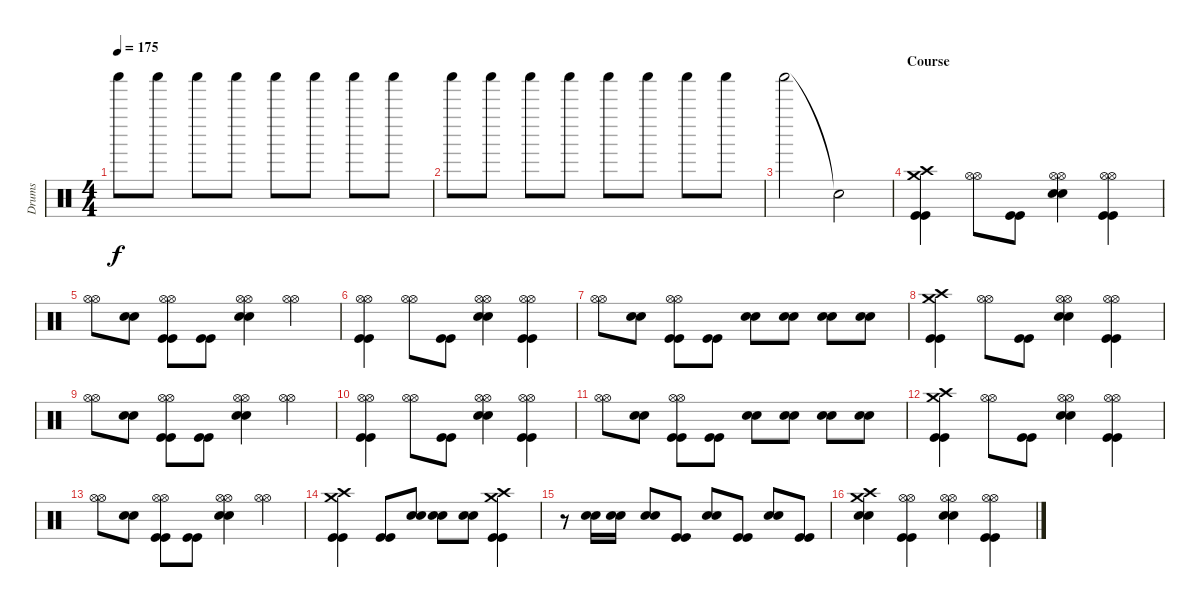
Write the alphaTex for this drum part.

\track ("Drums" "Drums") {instrument percussion}
\staff {score}
\articulation defaults
\ts (4 4)
\tempo 175
\clef neutral
\ks c "Shaker (hit)".8{dy f} "Shaker (hit)".8 "Shaker (hit)".8 "Shaker (hit)".8 "Shaker (hit)".8 "Shaker (hit)".8 "Shaker (hit)".8 "Shaker (hit)".8
|
"Shaker (hit)".8 "Shaker (hit)".8 "Shaker (hit)".8 "Shaker (hit)".8 "Shaker (hit)".8 "Shaker (hit)".8 "Shaker (hit)".8 "Shaker (hit)".8 |
"Shaker (hit)".2 "Snare (hit)"{t}.2 |
\section ("" "Course")
("Crash high (hit)" "Crash medium (hit)" "Kick (hit)" "Kick (hit)").4 ("Hi-Hat (open)" "Hi-Hat (open)").8 ("Kick (hit)" "Kick (hit)").8 ("Hi-Hat (open)" "Hi-Hat (open)" "Electric Snare (hit)" "Electric Snare (hit)").4 ("Hi-Hat (open)" "Hi-Hat (open)" "Kick (hit)" "Kick (hit)").4 |
("Hi-Hat (open)" "Hi-Hat (open)").8 ("Electric Snare (hit)" "Electric Snare (hit)").8 ("Hi-Hat (open)" "Hi-Hat (open)" "Kick (hit)" "Kick (hit)").8 ("Kick (hit)" "Kick (hit)").8 ("Hi-Hat (open)" "Hi-Hat (open)" "Electric Snare (hit)" "Electric Snare (hit)").4 ("Hi-Hat (open)" "Hi-Hat (open)").4 |
("Hi-Hat (open)" "Hi-Hat (open)" "Kick (hit)" "Kick (hit)").4 ("Hi-Hat (open)" "Hi-Hat (open)").8 ("Kick (hit)" "Kick (hit)").8 ("Hi-Hat (open)" "Hi-Hat (open)" "Electric Snare (hit)" "Electric Snare (hit)").4 ("Hi-Hat (open)" "Hi-Hat (open)" "Kick (hit)" "Kick (hit)").4 |
("Hi-Hat (open)" "Hi-Hat (open)").8 ("Electric Snare (hit)" "Electric Snare (hit)").8 ("Hi-Hat (open)" "Hi-Hat (open)" "Kick (hit)" "Kick (hit)").8 ("Kick (hit)" "Kick (hit)").8 ("Electric Snare (hit)" "Electric Snare (hit)").8 ("Electric Snare (hit)" "Electric Snare (hit)").8 ("Electric Snare (hit)" "Electric Snare (hit)").8 ("Electric Snare (hit)" "Electric Snare (hit)").8 |
("Crash high (hit)" "Crash medium (hit)" "Kick (hit)" "Kick (hit)").4 ("Hi-Hat (open)" "Hi-Hat (open)").8 ("Kick (hit)" "Kick (hit)").8 ("Hi-Hat (open)" "Hi-Hat (open)" "Electric Snare (hit)" "Electric Snare (hit)").4 ("Hi-Hat (open)" "Hi-Hat (open)" "Kick (hit)" "Kick (hit)").4 |
("Hi-Hat (open)" "Hi-Hat (open)").8 ("Electric Snare (hit)" "Electric Snare (hit)").8 ("Hi-Hat (open)" "Hi-Hat (open)" "Kick (hit)" "Kick (hit)").8 ("Kick (hit)" "Kick (hit)").8 ("Hi-Hat (open)" "Hi-Hat (open)" "Electric Snare (hit)" "Electric Snare (hit)").4 ("Hi-Hat (open)" "Hi-Hat (open)").4 |
("Hi-Hat (open)" "Hi-Hat (open)" "Kick (hit)" "Kick (hit)").4 ("Hi-Hat (open)" "Hi-Hat (open)").8 ("Kick (hit)" "Kick (hit)").8 ("Hi-Hat (open)" "Hi-Hat (open)" "Electric Snare (hit)" "Electric Snare (hit)").4 ("Hi-Hat (open)" "Hi-Hat (open)" "Kick (hit)" "Kick (hit)").4 |
("Hi-Hat (open)" "Hi-Hat (open)").8 ("Electric Snare (hit)" "Electric Snare (hit)").8 ("Hi-Hat (open)" "Hi-Hat (open)" "Kick (hit)" "Kick (hit)").8 ("Kick (hit)" "Kick (hit)").8 ("Electric Snare (hit)" "Electric Snare (hit)").8 ("Electric Snare (hit)" "Electric Snare (hit)").8 ("Electric Snare (hit)" "Electric Snare (hit)").8 ("Electric Snare (hit)" "Electric Snare (hit)").8 |
("Crash high (hit)" "Crash medium (hit)" "Kick (hit)" "Kick (hit)").4 ("Hi-Hat (open)" "Hi-Hat (open)").8 ("Kick (hit)" "Kick (hit)").8 ("Hi-Hat (open)" "Hi-Hat (open)" "Electric Snare (hit)" "Electric Snare (hit)").4 ("Hi-Hat (open)" "Hi-Hat (open)" "Kick (hit)" "Kick (hit)").4 |
("Hi-Hat (open)" "Hi-Hat (open)").8 ("Electric Snare (hit)" "Electric Snare (hit)").8 ("Hi-Hat (open)" "Hi-Hat (open)" "Kick (hit)" "Kick (hit)").8 ("Kick (hit)" "Kick (hit)").8 ("Hi-Hat (open)" "Hi-Hat (open)" "Electric Snare (hit)" "Electric Snare (hit)").4 ("Hi-Hat (open)" "Hi-Hat (open)").4 |
("Crash high (hit)" "Crash medium (hit)" "Kick (hit)" "Kick (hit)").4 ("Kick (hit)" "Kick (hit)").8 ("Electric Snare (hit)" "Electric Snare (hit)").8 ("Electric Snare (hit)" "Electric Snare (hit)").8 ("Electric Snare (hit)" "Electric Snare (hit)").8 ("Crash high (hit)" "Crash medium (hit)" "Kick (hit)" "Kick (hit)").4 |
r.8 ("Electric Snare (hit)" "Electric Snare (hit)").16 ("Electric Snare (hit)" "Electric Snare (hit)").16 ("Electric Snare (hit)" "Electric Snare (hit)").8 ("Kick (hit)" "Kick (hit)").8 ("Electric Snare (hit)" "Electric Snare (hit)").8 ("Kick (hit)" "Kick (hit)").8 ("Electric Snare (hit)" "Electric Snare (hit)").8 ("Kick (hit)" "Kick (hit)").8 |
("Crash high (hit)" "Crash medium (hit)" "Electric Snare (hit)" "Electric Snare (hit)").4 ("Hi-Hat (open)" "Hi-Hat (open)" "Kick (hit)" "Kick (hit)").4 ("Hi-Hat (open)" "Hi-Hat (open)" "Electric Snare (hit)" "Electric Snare (hit)").4 ("Hi-Hat (open)" "Hi-Hat (open)" "Kick (hit)" "Kick (hit)").4
